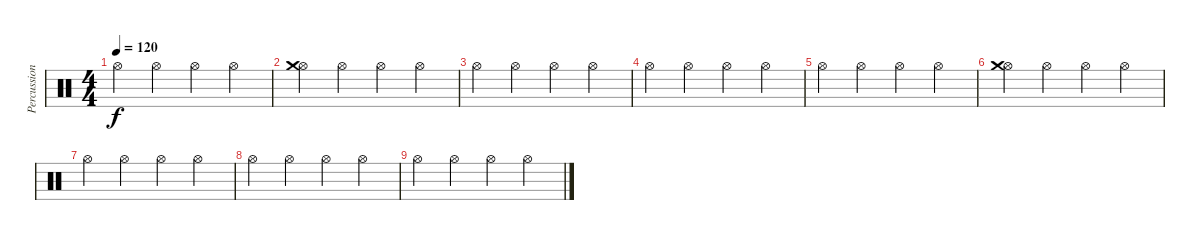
\track ("Percussions" "Percussion") {instrument percussion}
\staff {score}
\articulation defaults
\ts (4 4)
\tempo 120
\clef neutral
\ks c "Hi-Hat (open)".4{dy f} "Hi-Hat (open)".4 "Hi-Hat (open)".4 "Hi-Hat (open)".4
|
("Hi-Hat (open)" "Crash medium (hit)").4 "Hi-Hat (open)".4 "Hi-Hat (open)".4 "Hi-Hat (open)".4 |
"Hi-Hat (open)".4 "Hi-Hat (open)".4 "Hi-Hat (open)".4 "Hi-Hat (open)".4 |
"Hi-Hat (open)".4 "Hi-Hat (open)".4 "Hi-Hat (open)".4 "Hi-Hat (open)".4 |
"Hi-Hat (open)".4 "Hi-Hat (open)".4 "Hi-Hat (open)".4 "Hi-Hat (open)".4 |
("Hi-Hat (open)" "Crash medium (hit)").4 "Hi-Hat (open)".4 "Hi-Hat (open)".4 "Hi-Hat (open)".4 |
"Hi-Hat (open)".4 "Hi-Hat (open)".4 "Hi-Hat (open)".4 "Hi-Hat (open)".4 |
"Hi-Hat (open)".4 "Hi-Hat (open)".4 "Hi-Hat (open)".4 "Hi-Hat (open)".4 |
"Hi-Hat (open)".4 "Hi-Hat (open)".4 "Hi-Hat (open)".4 "Hi-Hat (open)".4
